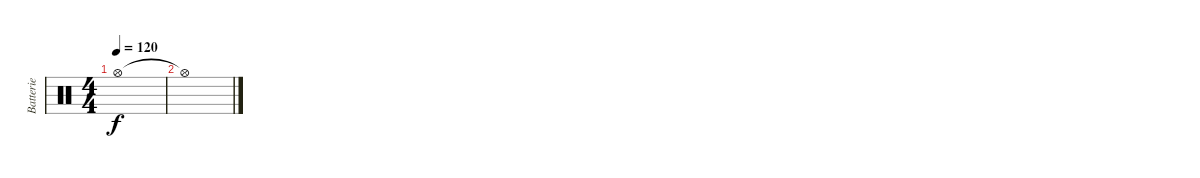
\track ("Batterie" "Batterie") {instrument percussion}
\staff {score}
\articulation defaults
\ts (4 4)
\tempo 120
\clef neutral
\ks c "Hi-Hat (open)".1{dy f}
|
"Hi-Hat (open)"{t}.1
